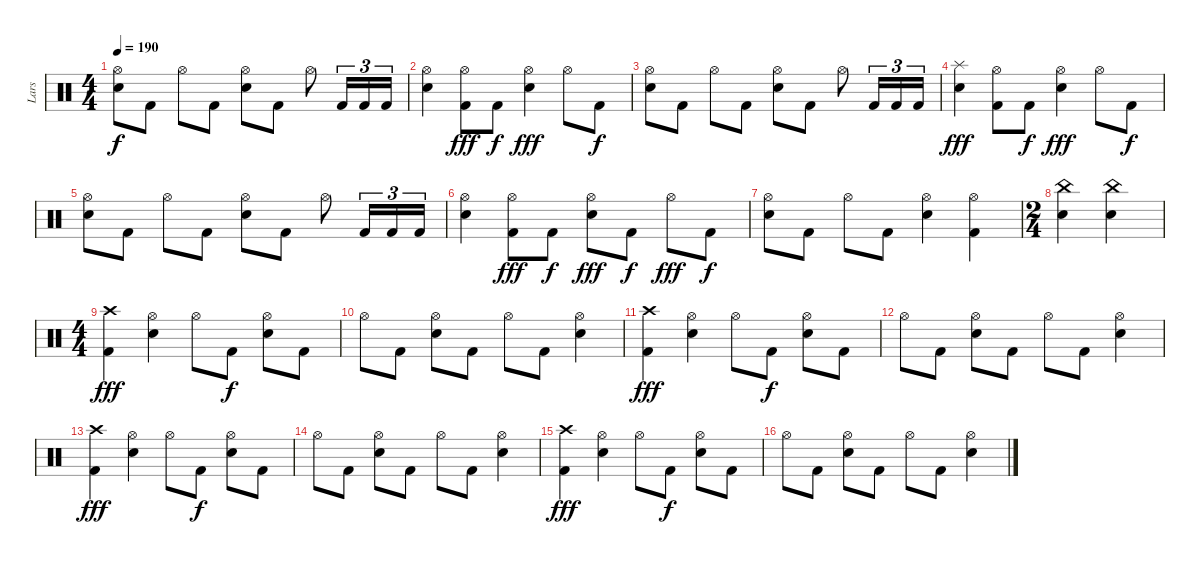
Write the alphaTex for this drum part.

\track ("Lars" "Lars") {instrument percussion}
\staff {score}
\articulation defaults
\ts (4 4)
\tempo 190
\clef neutral
\ks c
("Hi-Hat (open)" "Snare (hit) 2").8{dy f} "Kick (hit) 2".8 "Hi-Hat (open)".8 "Kick (hit) 2".8 ("Hi-Hat (open)" "Snare (hit) 2").8 "Kick (hit) 2".8 "Hi-Hat (open)".8 "Kick (hit) 2".16{tu (3 2)} "Kick (hit) 2".16{tu (3 2)} "Kick (hit) 2".16{tu (3 2)} |
("Hi-Hat (open)" "Snare (hit) 2").4 ("Hi-Hat (open)" "Kick (hit) 2").8{dy fff} "Kick (hit) 2".8{dy f} ("Hi-Hat (open)" "Snare (hit) 2").4{dy fff} "Hi-Hat (open)".8 "Kick (hit) 2".8{dy f} |
("Hi-Hat (open)" "Snare (hit) 2").8 "Kick (hit) 2".8 "Hi-Hat (open)".8 "Kick (hit) 2".8 ("Hi-Hat (open)" "Snare (hit) 2").8 "Kick (hit) 2".8 "Hi-Hat (open)".8 "Kick (hit) 2".16{tu (3 2)} "Kick (hit) 2".16{tu (3 2)} "Kick (hit) 2".16{tu (3 2)} |
("Splash (hit)" "Snare (hit) 2").4{dy fff} ("Hi-Hat (open)" "Kick (hit) 2").8 "Kick (hit) 2".8{dy f} ("Hi-Hat (open)" "Snare (hit) 2").4{dy fff} "Hi-Hat (open)".8 "Kick (hit) 2".8{dy f} |
("Hi-Hat (open)" "Snare (hit) 2").8 "Kick (hit) 2".8 "Hi-Hat (open)".8 "Kick (hit) 2".8 ("Hi-Hat (open)" "Snare (hit) 2").8 "Kick (hit) 2".8 "Hi-Hat (open)".8 "Kick (hit) 2".16{tu (3 2)} "Kick (hit) 2".16{tu (3 2)} "Kick (hit) 2".16{tu (3 2)} |
("Hi-Hat (open)" "Snare (hit) 2").4 ("Hi-Hat (open)" "Kick (hit) 2").8{dy fff} "Kick (hit) 2".8{dy f} ("Hi-Hat (open)" "Snare (hit) 2").8{dy fff} "Kick (hit) 2".8{dy f} "Hi-Hat (open)".8{dy fff} "Kick (hit) 2".8{dy f} |
("Hi-Hat (open)" "Snare (hit) 2").8 "Kick (hit) 2".8 "Hi-Hat (open)".8 "Kick (hit) 2".8 ("Hi-Hat (open)" "Snare (hit) 2").4 ("Hi-Hat (open)" "Kick (hit) 2").4 |
\ts (2 4)
("China (hit)" "Snare (hit) 2").4 ("China (hit)" "Snare (hit) 2").4 |
\ts (4 4)
("Crash high (hit)" "Kick (hit) 2").4{dy fff} ("Hi-Hat (open)" "Snare (hit) 2").4 "Hi-Hat (open)".8 "Kick (hit) 2".8{dy f} ("Hi-Hat (open)" "Snare (hit) 2").8 "Kick (hit) 2".8 |
"Hi-Hat (open)".8 "Kick (hit) 2".8 ("Hi-Hat (open)" "Snare (hit) 2").8 "Kick (hit) 2".8 "Hi-Hat (open)".8 "Kick (hit) 2".8 ("Hi-Hat (open)" "Snare (hit) 2").4 |
("Crash high (hit)" "Kick (hit) 2").4{dy fff} ("Hi-Hat (open)" "Snare (hit) 2").4 "Hi-Hat (open)".8 "Kick (hit) 2".8{dy f} ("Hi-Hat (open)" "Snare (hit) 2").8 "Kick (hit) 2".8 |
"Hi-Hat (open)".8 "Kick (hit) 2".8 ("Hi-Hat (open)" "Snare (hit) 2").8 "Kick (hit) 2".8 "Hi-Hat (open)".8 "Kick (hit) 2".8 ("Hi-Hat (open)" "Snare (hit) 2").4 |
("Crash high (hit)" "Kick (hit) 2").4{dy fff} ("Hi-Hat (open)" "Snare (hit) 2").4 "Hi-Hat (open)".8 "Kick (hit) 2".8{dy f} ("Hi-Hat (open)" "Snare (hit) 2").8 "Kick (hit) 2".8 |
"Hi-Hat (open)".8 "Kick (hit) 2".8 ("Hi-Hat (open)" "Snare (hit) 2").8 "Kick (hit) 2".8 "Hi-Hat (open)".8 "Kick (hit) 2".8 ("Hi-Hat (open)" "Snare (hit) 2").4 |
("Crash high (hit)" "Kick (hit) 2").4{dy fff} ("Hi-Hat (open)" "Snare (hit) 2").4 "Hi-Hat (open)".8 "Kick (hit) 2".8{dy f} ("Hi-Hat (open)" "Snare (hit) 2").8 "Kick (hit) 2".8 |
"Hi-Hat (open)".8 "Kick (hit) 2".8 ("Hi-Hat (open)" "Snare (hit) 2").8 "Kick (hit) 2".8 "Hi-Hat (open)".8 "Kick (hit) 2".8 ("Hi-Hat (open)" "Snare (hit) 2").4
